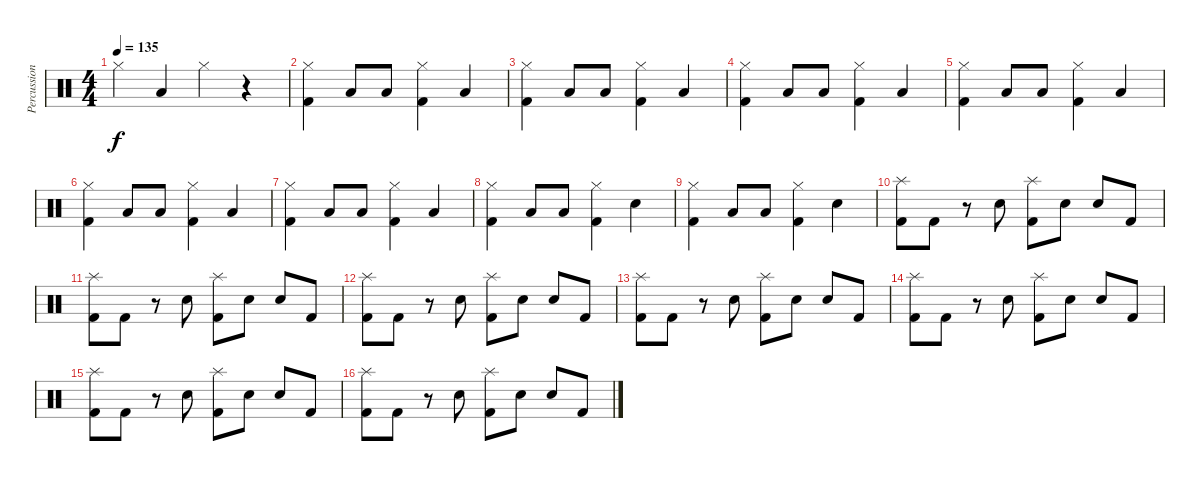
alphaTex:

\track ("Percussion" "Percussion") {instrument percussion}
\staff {score}
\articulation defaults
\ts (4 4)
\tempo 135
\clef neutral
\ks c "Hi-Hat (closed)".4{dy f} "Low Tom (hit)".4 "Hi-Hat (closed)".4
r.4 |
("Hi-Hat (closed)" "Kick (hit) 2").4 "Low Floor Tom (hit)".8 "Low Floor Tom (hit)".8 ("Hi-Hat (closed)" "Kick (hit) 2").4 "Low Floor Tom (hit)".4 |
("Hi-Hat (closed)" "Kick (hit) 2").4 "Low Tom (hit)".8 "Low Tom (hit)".8 ("Hi-Hat (closed)" "Kick (hit) 2").4 "Low Floor Tom (hit)".4 |
("Hi-Hat (closed)" "Kick (hit) 2").4 "Low Floor Tom (hit)".8 "Low Floor Tom (hit)".8 ("Hi-Hat (closed)" "Kick (hit) 2").4 "Low Floor Tom (hit)".4 |
("Hi-Hat (closed)" "Kick (hit) 2").4 "Low Tom (hit)".8 "Low Tom (hit)".8 ("Hi-Hat (closed)" "Kick (hit) 2").4 "Low Floor Tom (hit)".4 |
("Hi-Hat (closed)" "Kick (hit) 2").4 "Low Floor Tom (hit)".8 "Low Floor Tom (hit)".8 ("Hi-Hat (closed)" "Kick (hit) 2").4 "Low Floor Tom (hit)".4 |
("Hi-Hat (closed)" "Kick (hit) 2").4 "Low Tom (hit)".8 "Low Tom (hit)".8 ("Hi-Hat (closed)" "Kick (hit) 2").4 "Low Floor Tom (hit)".4 |
("Hi-Hat (closed)" "Kick (hit) 2").4 "Low Floor Tom (hit)".8 "Low Floor Tom (hit)".8 ("Hi-Hat (closed)" "Kick (hit) 2").4 "Snare (hit) 2".4 |
("Hi-Hat (closed)" "Kick (hit) 2").4 "Low Tom (hit)".8 "Low Tom (hit)".8 ("Hi-Hat (closed)" "Kick (hit) 2").4 "Snare (hit) 2".4 |
("Splash (hit)" "Kick (hit) 2").8 "Kick (hit) 2".8 r.8 "Snare (hit) 2".8 ("Splash (hit)" "Kick (hit) 2").8 "Snare (hit) 2".8 "Snare (hit) 2".8 "Kick (hit) 2".8 |
("Splash (hit)" "Kick (hit) 2").8 "Kick (hit) 2".8 r.8 "Snare (hit) 2".8 ("Splash (hit)" "Kick (hit) 2").8 "Snare (hit) 2".8 "Snare (hit) 2".8 "Kick (hit) 2".8 |
("Splash (hit)" "Kick (hit) 2").8 "Kick (hit) 2".8 r.8 "Snare (hit) 2".8 ("Splash (hit)" "Kick (hit) 2").8 "Snare (hit) 2".8 "Snare (hit) 2".8 "Kick (hit) 2".8 |
("Splash (hit)" "Kick (hit) 2").8 "Kick (hit) 2".8 r.8 "Snare (hit) 2".8 ("Splash (hit)" "Kick (hit) 2").8 "Snare (hit) 2".8 "Snare (hit) 2".8 "Kick (hit) 2".8 |
("Splash (hit)" "Kick (hit) 2").8 "Kick (hit) 2".8 r.8 "Snare (hit) 2".8 ("Splash (hit)" "Kick (hit) 2").8 "Snare (hit) 2".8 "Snare (hit) 2".8 "Kick (hit) 2".8 |
("Splash (hit)" "Kick (hit) 2").8 "Kick (hit) 2".8 r.8 "Snare (hit) 2".8 ("Splash (hit)" "Kick (hit) 2").8 "Snare (hit) 2".8 "Snare (hit) 2".8 "Kick (hit) 2".8 |
("Splash (hit)" "Kick (hit) 2").8 "Kick (hit) 2".8 r.8 "Snare (hit) 2".8 ("Splash (hit)" "Kick (hit) 2").8 "Snare (hit) 2".8 "Snare (hit) 2".8 "Kick (hit) 2".8
